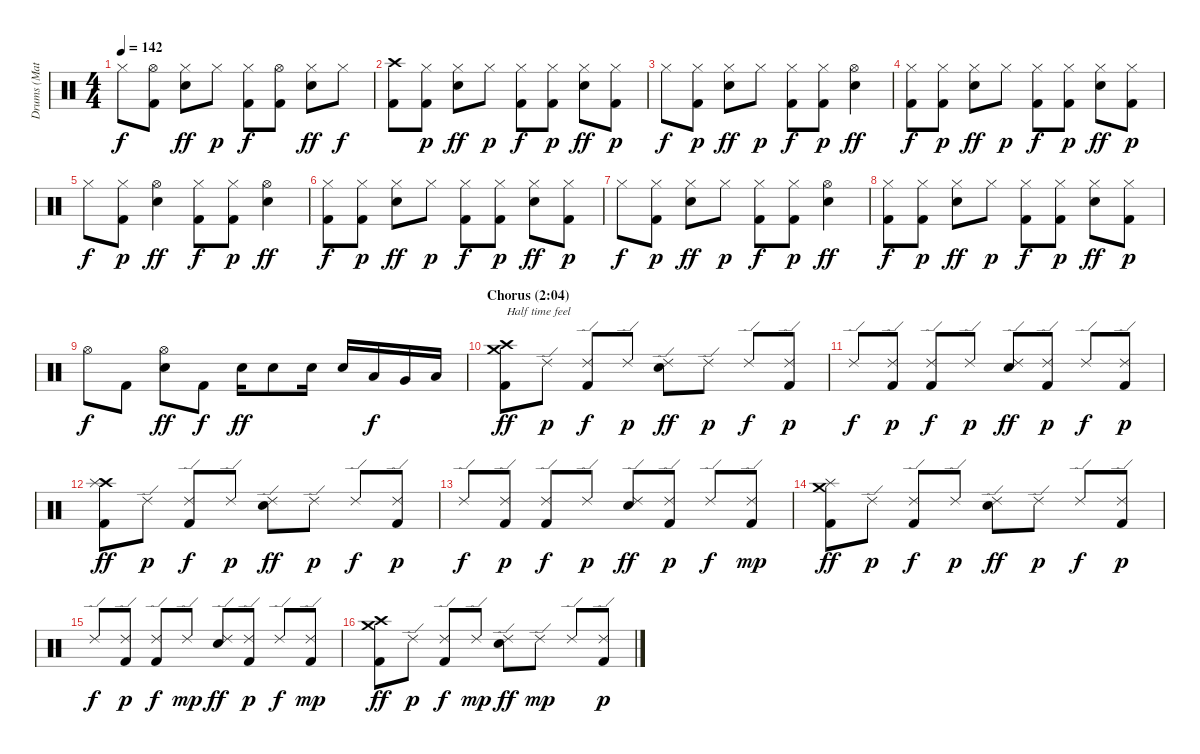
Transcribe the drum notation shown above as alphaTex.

\track ("Drums (Matt Sorum)" "Drums (Mat") {instrument percussion}
\staff {score}
\articulation defaults
\ts (4 4)
\tempo 142
\clef neutral
\ks c "Hi-Hat (closed)".8{dy f}
("Hi-Hat (open)" "Kick (hit) 2").8 ("Hi-Hat (closed)" "Snare (hit) 2").8{dy ff} "Hi-Hat (closed)".8{dy p} ("Hi-Hat (closed)" "Kick (hit) 2").8{dy f} ("Hi-Hat (open)" "Kick (hit) 2").8 ("Hi-Hat (closed)" "Snare (hit) 2").8{dy ff} "Hi-Hat (closed)".8{dy f} |
("Crash high (hit)" "Kick (hit) 2").8 ("Hi-Hat (closed)" "Kick (hit) 2").8{dy p} ("Hi-Hat (closed)" "Snare (hit) 2").8{dy ff} "Hi-Hat (closed)".8{dy p} ("Hi-Hat (closed)" "Kick (hit) 2").8{dy f} ("Hi-Hat (closed)" "Kick (hit) 2").8{dy p} ("Hi-Hat (closed)" "Snare (hit) 2").8{dy ff} ("Hi-Hat (closed)" "Kick (hit) 2").8{dy p} |
"Hi-Hat (closed)".8{dy f} ("Hi-Hat (closed)" "Kick (hit) 2").8{dy p} ("Hi-Hat (closed)" "Snare (hit) 2").8{dy ff} "Hi-Hat (closed)".8{dy p} ("Hi-Hat (closed)" "Kick (hit) 2").8{dy f} ("Hi-Hat (closed)" "Kick (hit) 2").8{dy p} ("Hi-Hat (open)" "Snare (hit) 2").4{dy ff} |
("Hi-Hat (closed)" "Kick (hit) 2").8{dy f} ("Hi-Hat (closed)" "Kick (hit) 2").8{dy p} ("Hi-Hat (closed)" "Snare (hit) 2").8{dy ff} "Hi-Hat (closed)".8{dy p} ("Hi-Hat (closed)" "Kick (hit) 2").8{dy f} ("Hi-Hat (closed)" "Kick (hit) 2").8{dy p} ("Hi-Hat (closed)" "Snare (hit) 2").8{dy ff} ("Hi-Hat (closed)" "Kick (hit) 2").8{dy p} |
"Hi-Hat (closed)".8{dy f} ("Hi-Hat (closed)" "Kick (hit) 2").8{dy p} ("Hi-Hat (open)" "Snare (hit) 2").4{dy ff} ("Hi-Hat (closed)" "Kick (hit) 2").8{dy f} ("Hi-Hat (closed)" "Kick (hit) 2").8{dy p} ("Hi-Hat (open)" "Snare (hit) 2").4{dy ff} |
("Hi-Hat (closed)" "Kick (hit) 2").8{dy f} ("Hi-Hat (closed)" "Kick (hit) 2").8{dy p} ("Hi-Hat (closed)" "Snare (hit) 2").8{dy ff} "Hi-Hat (closed)".8{dy p} ("Hi-Hat (closed)" "Kick (hit) 2").8{dy f} ("Hi-Hat (closed)" "Kick (hit) 2").8{dy p} ("Hi-Hat (closed)" "Snare (hit) 2").8{dy ff} ("Hi-Hat (closed)" "Kick (hit) 2").8{dy p} |
"Hi-Hat (closed)".8{dy f} ("Hi-Hat (closed)" "Kick (hit) 2").8{dy p} ("Hi-Hat (closed)" "Snare (hit) 2").8{dy ff} "Hi-Hat (closed)".8{dy p} ("Hi-Hat (closed)" "Kick (hit) 2").8{dy f} ("Hi-Hat (closed)" "Kick (hit) 2").8{dy p} ("Hi-Hat (open)" "Snare (hit) 2").4{dy ff} |
("Hi-Hat (closed)" "Kick (hit) 2").8{dy f} ("Hi-Hat (closed)" "Kick (hit) 2").8{dy p} ("Hi-Hat (closed)" "Snare (hit) 2").8{dy ff} "Hi-Hat (closed)".8{dy p} ("Hi-Hat (closed)" "Kick (hit) 2").8{dy f} ("Hi-Hat (closed)" "Kick (hit) 2").8{dy p} ("Hi-Hat (closed)" "Snare (hit) 2").8{dy ff} ("Hi-Hat (closed)" "Kick (hit) 2").8{dy p} |
"Hi-Hat (open)".8{dy f} "Kick (hit) 2".8 ("Hi-Hat (open)" "Snare (hit) 2").8{dy ff} "Kick (hit) 2".8{dy f} "Snare (hit) 2".16{dy ff} "Snare (hit) 2".8 "Snare (hit) 2".16 "Snare (hit) 2".16 "Low Tom (hit)".16{dy f} "Very Low Tom (hit)".16 "Low Floor Tom (hit)".16 |
\section ("" "Chorus (2:04)")
("Crash high (hit)" "Crash medium (hit)" "Kick (hit) 2").8{txt "Half time feel" dy ff} "Ride (edge) 2".8{dy p} ("Ride (edge) 2" "Kick (hit) 2").8{dy f} "Ride (edge) 2".8{dy p} ("Ride (edge) 2" "Snare (hit) 2").8{dy ff} "Ride (edge) 2".8{dy p} "Ride (edge) 2".8{dy f} ("Ride (edge) 2" "Kick (hit) 2").8{dy p} |
"Ride (edge) 2".8{dy f} ("Ride (edge) 2" "Kick (hit) 2").8{dy p} ("Ride (edge) 2" "Kick (hit) 2").8{dy f} "Ride (edge) 2".8{dy p} ("Ride (edge) 2" "Snare (hit) 2").8{dy ff} ("Ride (edge) 2" "Kick (hit) 2").8{dy p} "Ride (edge) 2".8{dy f} ("Ride (edge) 2" "Kick (hit) 2").8{dy p} |
("Crash high (hit)" "Splash (hit)" "Kick (hit) 2").8{dy ff} "Ride (edge) 2".8{dy p} ("Ride (edge) 2" "Kick (hit) 2").8{dy f} "Ride (edge) 2".8{dy p} ("Ride (edge) 2" "Snare (hit) 2").8{dy ff} "Ride (edge) 2".8{dy p} "Ride (edge) 2".8{dy f} ("Ride (edge) 2" "Kick (hit) 2").8{dy p} |
"Ride (edge) 2".8{dy f} ("Ride (edge) 2" "Kick (hit) 2").8{dy p} ("Ride (edge) 2" "Kick (hit) 2").8{dy f} "Ride (edge) 2".8{dy p} ("Ride (edge) 2" "Snare (hit) 2").8{dy ff} ("Ride (edge) 2" "Kick (hit) 2").8{dy p} "Ride (edge) 2".8{dy f} ("Ride (edge) 2" "Kick (hit) 2").8{dy mp} |
("Crash medium (hit)" "Splash (hit)" "Kick (hit) 2").8{dy ff} "Ride (edge) 2".8{dy p} ("Ride (edge) 2" "Kick (hit) 2").8{dy f} "Ride (edge) 2".8{dy p} ("Ride (edge) 2" "Snare (hit) 2").8{dy ff} "Ride (edge) 2".8{dy p} "Ride (edge) 2".8{dy f} ("Ride (edge) 2" "Kick (hit) 2").8{dy p} |
"Ride (edge) 2".8{dy f} ("Ride (edge) 2" "Kick (hit) 2").8{dy p} ("Ride (edge) 2" "Kick (hit) 2").8{dy f} "Ride (edge) 2".8{dy mp} ("Ride (edge) 2" "Snare (hit) 2").8{dy ff} ("Ride (edge) 2" "Kick (hit) 2").8{dy p} "Ride (edge) 2".8{dy f} ("Ride (edge) 2" "Kick (hit) 2").8{dy mp} |
("Crash high (hit)" "Crash medium (hit)" "Kick (hit) 2").8{dy ff} "Ride (edge) 2".8{dy p} ("Ride (edge) 2" "Kick (hit) 2").8{dy f} "Ride (edge) 2".8{dy mp} ("Ride (edge) 2" "Snare (hit) 2").8{dy ff} "Ride (edge) 2".8{dy mp} "Ride (edge) 2".8 ("Ride (edge) 2" "Kick (hit) 2").8{dy p}
